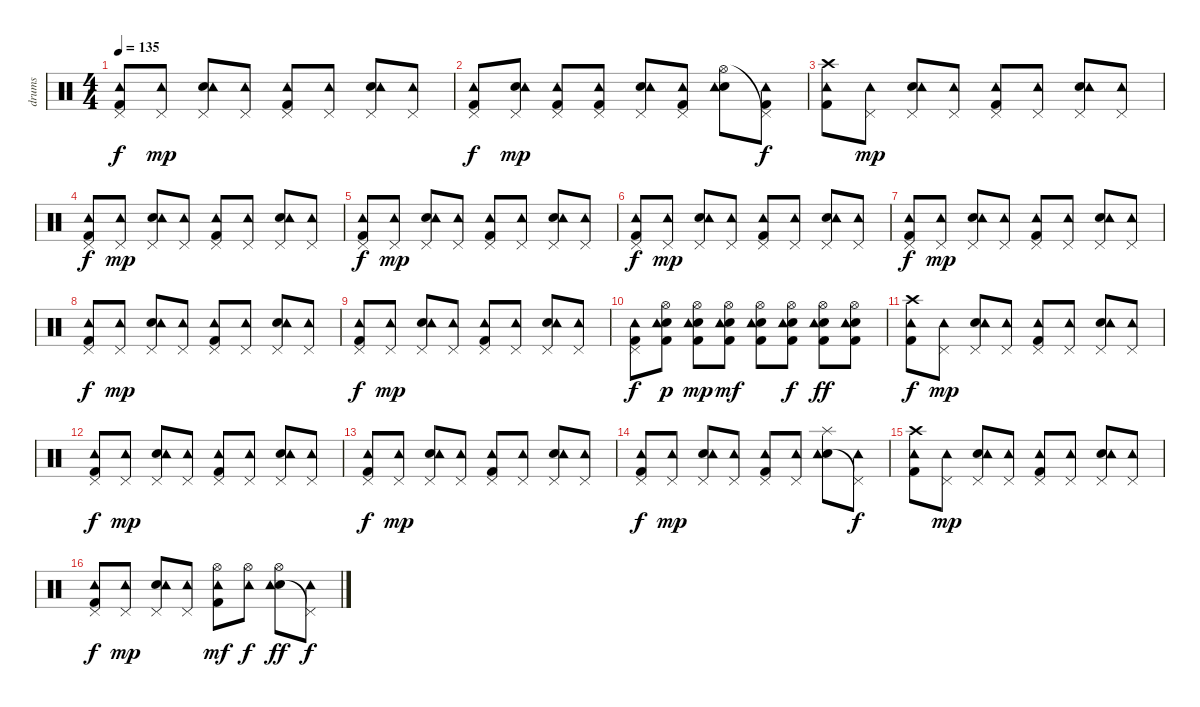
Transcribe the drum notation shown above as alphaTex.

\track ("drums" "drums") {instrument percussion}
\staff {score}
\articulation defaults
\ts (4 4)
\tempo 135
\clef neutral
\ks c
("Kick (hit) 2" "Pedal Hi-Hat (hit)" "Tambourine (hit)").8{dy f} ("Pedal Hi-Hat (hit)" "Tambourine (hit)").8{dy mp} ("Electric Snare (hit)" "Pedal Hi-Hat (hit)" "Tambourine (hit)").8 ("Pedal Hi-Hat (hit)" "Tambourine (hit)").8 ("Kick (hit) 2" "Pedal Hi-Hat (hit)" "Tambourine (hit)").8 ("Pedal Hi-Hat (hit)" "Tambourine (hit)").8 ("Electric Snare (hit)" "Pedal Hi-Hat (hit)" "Tambourine (hit)").8 ("Pedal Hi-Hat (hit)" "Tambourine (hit)").8 |
("Kick (hit) 2" "Pedal Hi-Hat (hit)" "Tambourine (hit)").8{dy f} ("Electric Snare (hit)" "Pedal Hi-Hat (hit)" "Tambourine (hit)").8{dy mp} ("Kick (hit) 2" "Pedal Hi-Hat (hit)" "Tambourine (hit)").8 ("Kick (hit) 2" "Pedal Hi-Hat (hit)" "Tambourine (hit)").8 ("Electric Snare (hit)" "Pedal Hi-Hat (hit)" "Tambourine (hit)").8 ("Kick (hit) 2" "Pedal Hi-Hat (hit)" "Tambourine (hit)").8 ("Electric Snare (hit)" "Hi-Hat (open)" "Tambourine (hit)").8 ("Kick (hit) 2" "Pedal Hi-Hat (hit)"{t} "Tambourine (hit)").8{dy f} |
("Kick (hit) 2" "Crash high (hit)" "Tambourine (hit)").8 ("Pedal Hi-Hat (hit)" "Tambourine (hit)").8{dy mp} ("Electric Snare (hit)" "Pedal Hi-Hat (hit)" "Tambourine (hit)").8 ("Pedal Hi-Hat (hit)" "Tambourine (hit)").8 ("Kick (hit) 2" "Pedal Hi-Hat (hit)" "Tambourine (hit)").8 ("Pedal Hi-Hat (hit)" "Tambourine (hit)").8 ("Electric Snare (hit)" "Pedal Hi-Hat (hit)" "Tambourine (hit)").8 ("Pedal Hi-Hat (hit)" "Tambourine (hit)").8 |
("Kick (hit) 2" "Pedal Hi-Hat (hit)" "Tambourine (hit)").8{dy f} ("Pedal Hi-Hat (hit)" "Tambourine (hit)").8{dy mp} ("Electric Snare (hit)" "Pedal Hi-Hat (hit)" "Tambourine (hit)").8 ("Pedal Hi-Hat (hit)" "Tambourine (hit)").8 ("Kick (hit) 2" "Pedal Hi-Hat (hit)" "Tambourine (hit)").8 ("Pedal Hi-Hat (hit)" "Tambourine (hit)").8 ("Electric Snare (hit)" "Pedal Hi-Hat (hit)" "Tambourine (hit)").8 ("Pedal Hi-Hat (hit)" "Tambourine (hit)").8 |
("Kick (hit) 2" "Pedal Hi-Hat (hit)" "Tambourine (hit)").8{dy f} ("Pedal Hi-Hat (hit)" "Tambourine (hit)").8{dy mp} ("Electric Snare (hit)" "Pedal Hi-Hat (hit)" "Tambourine (hit)").8 ("Pedal Hi-Hat (hit)" "Tambourine (hit)").8 ("Kick (hit) 2" "Pedal Hi-Hat (hit)" "Tambourine (hit)").8 ("Pedal Hi-Hat (hit)" "Tambourine (hit)").8 ("Electric Snare (hit)" "Pedal Hi-Hat (hit)" "Tambourine (hit)").8 ("Pedal Hi-Hat (hit)" "Tambourine (hit)").8 |
("Kick (hit) 2" "Pedal Hi-Hat (hit)" "Tambourine (hit)").8{dy f} ("Pedal Hi-Hat (hit)" "Tambourine (hit)").8{dy mp} ("Electric Snare (hit)" "Pedal Hi-Hat (hit)" "Tambourine (hit)").8 ("Pedal Hi-Hat (hit)" "Tambourine (hit)").8 ("Kick (hit) 2" "Pedal Hi-Hat (hit)" "Tambourine (hit)").8 ("Pedal Hi-Hat (hit)" "Tambourine (hit)").8 ("Electric Snare (hit)" "Pedal Hi-Hat (hit)" "Tambourine (hit)").8 ("Pedal Hi-Hat (hit)" "Tambourine (hit)").8 |
("Kick (hit) 2" "Pedal Hi-Hat (hit)" "Tambourine (hit)").8{dy f} ("Pedal Hi-Hat (hit)" "Tambourine (hit)").8{dy mp} ("Electric Snare (hit)" "Pedal Hi-Hat (hit)" "Tambourine (hit)").8 ("Pedal Hi-Hat (hit)" "Tambourine (hit)").8 ("Kick (hit) 2" "Pedal Hi-Hat (hit)" "Tambourine (hit)").8 ("Pedal Hi-Hat (hit)" "Tambourine (hit)").8 ("Electric Snare (hit)" "Pedal Hi-Hat (hit)" "Tambourine (hit)").8 ("Pedal Hi-Hat (hit)" "Tambourine (hit)").8 |
("Kick (hit) 2" "Pedal Hi-Hat (hit)" "Tambourine (hit)").8{dy f} ("Pedal Hi-Hat (hit)" "Tambourine (hit)").8{dy mp} ("Electric Snare (hit)" "Pedal Hi-Hat (hit)" "Tambourine (hit)").8 ("Pedal Hi-Hat (hit)" "Tambourine (hit)").8 ("Kick (hit) 2" "Pedal Hi-Hat (hit)" "Tambourine (hit)").8 ("Pedal Hi-Hat (hit)" "Tambourine (hit)").8 ("Electric Snare (hit)" "Pedal Hi-Hat (hit)" "Tambourine (hit)").8 ("Pedal Hi-Hat (hit)" "Tambourine (hit)").8 |
("Kick (hit) 2" "Pedal Hi-Hat (hit)" "Tambourine (hit)").8{dy f} ("Pedal Hi-Hat (hit)" "Tambourine (hit)").8{dy mp} ("Electric Snare (hit)" "Pedal Hi-Hat (hit)" "Tambourine (hit)").8 ("Pedal Hi-Hat (hit)" "Tambourine (hit)").8 ("Kick (hit) 2" "Pedal Hi-Hat (hit)" "Tambourine (hit)").8 ("Pedal Hi-Hat (hit)" "Tambourine (hit)").8 ("Electric Snare (hit)" "Pedal Hi-Hat (hit)" "Tambourine (hit)").8 ("Pedal Hi-Hat (hit)" "Tambourine (hit)").8 |
("Kick (hit) 2" "Pedal Hi-Hat (hit)" "Tambourine (hit)").8{dy f} ("Electric Snare (hit)" "Kick (hit) 2" "Hi-Hat (open)" "Tambourine (hit)").8{dy p} ("Electric Snare (hit)" "Kick (hit) 2" "Hi-Hat (open)" "Tambourine (hit)").8{dy mp} ("Electric Snare (hit)" "Kick (hit) 2" "Hi-Hat (open)" "Tambourine (hit)").8{dy mf} ("Electric Snare (hit)" "Kick (hit) 2" "Hi-Hat (open)" "Tambourine (hit)").8 ("Electric Snare (hit)" "Kick (hit) 2" "Hi-Hat (open)" "Tambourine (hit)").8{dy f} ("Electric Snare (hit)" "Kick (hit) 2" "Hi-Hat (open)" "Tambourine (hit)").8{dy ff} ("Electric Snare (hit)" "Kick (hit) 2" "Hi-Hat (open)" "Tambourine (hit)").8 |
("Kick (hit) 2" "Crash high (hit)" "Tambourine (hit)").8{dy f} ("Pedal Hi-Hat (hit)" "Tambourine (hit)").8{dy mp} ("Electric Snare (hit)" "Pedal Hi-Hat (hit)" "Tambourine (hit)").8 ("Pedal Hi-Hat (hit)" "Tambourine (hit)").8 ("Kick (hit) 2" "Pedal Hi-Hat (hit)" "Tambourine (hit)").8 ("Pedal Hi-Hat (hit)" "Tambourine (hit)").8 ("Electric Snare (hit)" "Pedal Hi-Hat (hit)" "Tambourine (hit)").8 ("Pedal Hi-Hat (hit)" "Tambourine (hit)").8 |
("Kick (hit) 2" "Pedal Hi-Hat (hit)" "Tambourine (hit)").8{dy f} ("Pedal Hi-Hat (hit)" "Tambourine (hit)").8{dy mp} ("Electric Snare (hit)" "Pedal Hi-Hat (hit)" "Tambourine (hit)").8 ("Pedal Hi-Hat (hit)" "Tambourine (hit)").8 ("Kick (hit) 2" "Pedal Hi-Hat (hit)" "Tambourine (hit)").8 ("Pedal Hi-Hat (hit)" "Tambourine (hit)").8 ("Electric Snare (hit)" "Pedal Hi-Hat (hit)" "Tambourine (hit)").8 ("Pedal Hi-Hat (hit)" "Tambourine (hit)").8 |
("Kick (hit) 2" "Pedal Hi-Hat (hit)" "Tambourine (hit)").8{dy f} ("Pedal Hi-Hat (hit)" "Tambourine (hit)").8{dy mp} ("Electric Snare (hit)" "Pedal Hi-Hat (hit)" "Tambourine (hit)").8 ("Pedal Hi-Hat (hit)" "Tambourine (hit)").8 ("Kick (hit) 2" "Pedal Hi-Hat (hit)" "Tambourine (hit)").8 ("Pedal Hi-Hat (hit)" "Tambourine (hit)").8 ("Electric Snare (hit)" "Pedal Hi-Hat (hit)" "Tambourine (hit)").8 ("Pedal Hi-Hat (hit)" "Tambourine (hit)").8 |
("Kick (hit) 2" "Pedal Hi-Hat (hit)" "Tambourine (hit)").8{dy f} ("Pedal Hi-Hat (hit)" "Tambourine (hit)").8{dy mp} ("Electric Snare (hit)" "Pedal Hi-Hat (hit)" "Tambourine (hit)").8 ("Pedal Hi-Hat (hit)" "Tambourine (hit)").8 ("Kick (hit) 2" "Pedal Hi-Hat (hit)" "Tambourine (hit)").8 ("Pedal Hi-Hat (hit)" "Tambourine (hit)").8 ("Electric Snare (hit)" "Splash (hit)" "Tambourine (hit)").8 ("Pedal Hi-Hat (hit)"{t} "Tambourine (hit)").8{dy f} |
("Kick (hit) 2" "Crash high (hit)" "Tambourine (hit)").8 ("Pedal Hi-Hat (hit)" "Tambourine (hit)").8{dy mp} ("Electric Snare (hit)" "Pedal Hi-Hat (hit)" "Tambourine (hit)").8 ("Pedal Hi-Hat (hit)" "Tambourine (hit)").8 ("Kick (hit) 2" "Pedal Hi-Hat (hit)" "Tambourine (hit)").8 ("Pedal Hi-Hat (hit)" "Tambourine (hit)").8 ("Electric Snare (hit)" "Pedal Hi-Hat (hit)" "Tambourine (hit)").8 ("Pedal Hi-Hat (hit)" "Tambourine (hit)").8 |
("Kick (hit) 2" "Pedal Hi-Hat (hit)" "Tambourine (hit)").8{dy f} ("Pedal Hi-Hat (hit)" "Tambourine (hit)").8{dy mp} ("Electric Snare (hit)" "Pedal Hi-Hat (hit)" "Tambourine (hit)").8 ("Pedal Hi-Hat (hit)" "Tambourine (hit)").8 ("Kick (hit) 2" "Hi-Hat (open)" "Tambourine (hit)").8{dy mf} ("Hi-Hat (open)" "Tambourine (hit)").8{dy f} ("Electric Snare (hit)" "Hi-Hat (open)" "Tambourine (hit)").8{dy ff} ("Pedal Hi-Hat (hit)"{t} "Tambourine (hit)").8{dy f}
